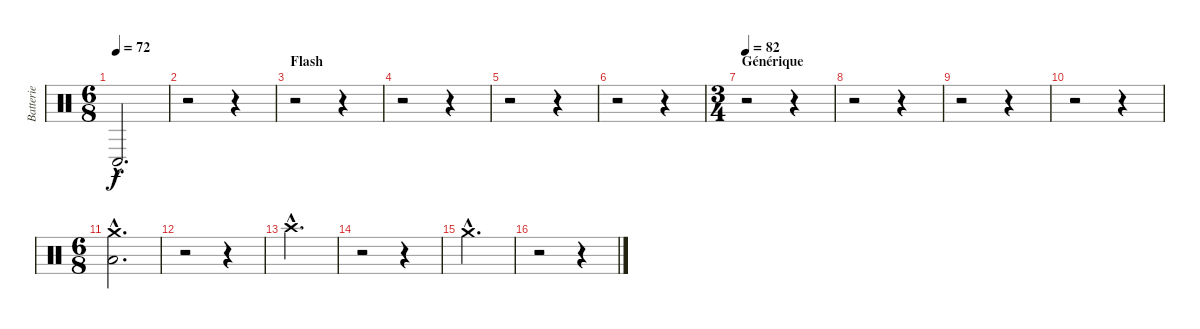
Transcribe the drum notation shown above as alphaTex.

\track ("Batterie" "Batterie") {instrument percussion}
\staff {score}
\articulation defaults
\ts (6 8)
\tempo 72
\clef neutral
\ks c "Conga low (hit)"{hac}.2{d dy f}
|
r.2 r.4 |
\section ("" "Flash")
r.2 r.4 |
r.2 r.4 |
r.2 r.4 |
r.2 r.4 |
\ts (3 4)
\section ("" "Générique")
\tempo 82
r.2 r.4 |
r.2 r.4 |
r.2 r.4 |
r.2 r.4 |
\ts (6 8)
("Crash medium (hit)"{hac} "Low Tom (hit)"{hac}).2{d} |
r.2 r.4 |
"Crash high (hit)"{hac}.2{d} |
r.2 r.4 |
"Crash medium (hit)"{hac}.2{d} |
r.2 r.4
